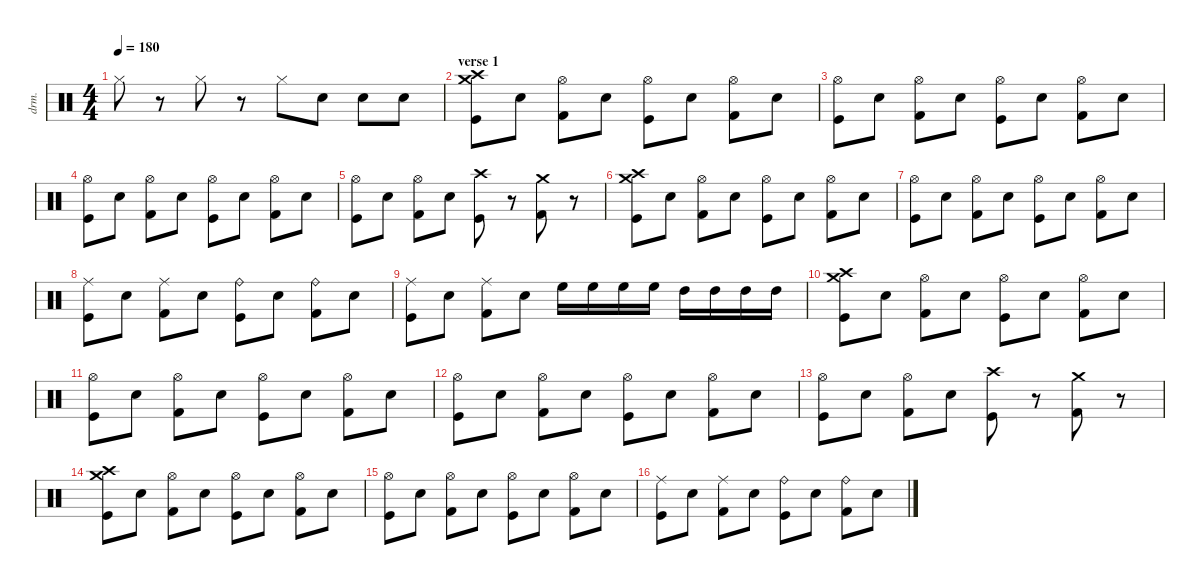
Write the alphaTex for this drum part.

\defaultSystemsLayout 4
\hideDynamics
\bracketExtendMode nobrackets
\otherSystemsTrackNameOrientation horizontal
\track ("Joosep" "drm.") {instrument percussion}
\staff {score}
\articulation defaults
\ts (4 4)
\tempo 180
\clef neutral
\ks c "Hi-Hat (closed)".8{dy mf beam Down}
r.8{beam Down} "Hi-Hat (closed)".8{beam Down} r.8{beam Down} "Hi-Hat (closed)".8{beam Down} "Snare (hit) 2".8{beam Down} "Snare (hit) 2".8{beam Down} "Snare (hit) 2".8{beam Down} |
\section ("" "verse 1")
("Kick (hit)" "Crash high (hit)" "Crash medium (hit)").8{beam Down} "Snare (hit) 2".8{beam Down} ("Hi-Hat (open)" "Kick (hit) 2").8{beam Down} "Snare (hit) 2".8{beam Down} ("Kick (hit)" "Hi-Hat (open)").8{beam Down} "Snare (hit) 2".8{beam Down} ("Hi-Hat (open)" "Kick (hit) 2").8{beam Down} "Snare (hit) 2".8{beam Down} |
("Kick (hit)" "Hi-Hat (open)").8{beam Down} "Snare (hit) 2".8{beam Down} ("Hi-Hat (open)" "Kick (hit) 2").8{beam Down} "Snare (hit) 2".8{beam Down} ("Kick (hit)" "Hi-Hat (open)").8{beam Down} "Snare (hit) 2".8{beam Down} ("Hi-Hat (open)" "Kick (hit) 2").8{beam Down} "Snare (hit) 2".8{beam Down} |
("Kick (hit)" "Hi-Hat (open)").8{beam Down} "Snare (hit) 2".8{beam Down} ("Hi-Hat (open)" "Kick (hit) 2").8{beam Down} "Snare (hit) 2".8{beam Down} ("Kick (hit)" "Hi-Hat (open)").8{beam Down} "Snare (hit) 2".8{beam Down} ("Hi-Hat (open)" "Kick (hit) 2").8{beam Down} "Snare (hit) 2".8{beam Down} |
("Kick (hit)" "Hi-Hat (open)").8{beam Down} "Snare (hit) 2".8{beam Down} ("Hi-Hat (open)" "Kick (hit) 2").8{beam Down} "Snare (hit) 2".8{beam Down} ("Kick (hit)" "Crash high (hit)").8{beam Down} r.8{beam Down} ("Kick (hit) 2" "Crash medium (hit)").8{beam Down} r.8{beam Down} |
("Kick (hit)" "Crash high (hit)" "Crash medium (hit)").8{beam Down} "Snare (hit) 2".8{beam Down} ("Hi-Hat (open)" "Kick (hit) 2").8{beam Down} "Snare (hit) 2".8{beam Down} ("Kick (hit)" "Hi-Hat (open)").8{beam Down} "Snare (hit) 2".8{beam Down} ("Hi-Hat (open)" "Kick (hit) 2").8{beam Down} "Snare (hit) 2".8{beam Down} |
("Kick (hit)" "Hi-Hat (open)").8{beam Down} "Snare (hit) 2".8{beam Down} ("Hi-Hat (open)" "Kick (hit) 2").8{beam Down} "Snare (hit) 2".8{beam Down} ("Kick (hit)" "Hi-Hat (open)").8{beam Down} "Snare (hit) 2".8{beam Down} ("Hi-Hat (open)" "Kick (hit) 2").8{beam Down} "Snare (hit) 2".8{beam Down} |
("Kick (hit)" "Ride (middle)").8{beam Down} "Snare (hit) 2".8{beam Down} ("Kick (hit) 2" "Ride (middle)").8{beam Down} "Snare (hit) 2".8{beam Down} ("Kick (hit)" "Ride (bell)").8{beam Down} "Snare (hit) 2".8{beam Down} ("Kick (hit) 2" "Ride (bell)").8{beam Down} "Snare (hit) 2".8{beam Down} |
("Kick (hit)" "Ride (middle)").8{beam Down} "Snare (hit) 2".8{beam Down} ("Kick (hit) 2" "Ride (middle)").8{beam Down} "Snare (hit) 2".8{beam Down} "High Floor Tom (hit)".16{beam Down} "High Floor Tom (hit)".16{beam Down} "High Floor Tom (hit)".16{beam Down} "High Floor Tom (hit)".16{beam Down} "High Tom (hit)".16{beam Down} "High Tom (hit)".16{beam Down} "High Tom (hit)".16{beam Down} "High Tom (hit)".16{beam Down} |
("Kick (hit)" "Crash high (hit)" "Crash medium (hit)").8{beam Down} "Snare (hit) 2".8{beam Down} ("Hi-Hat (open)" "Kick (hit) 2").8{beam Down} "Snare (hit) 2".8{beam Down} ("Kick (hit)" "Hi-Hat (open)").8{beam Down} "Snare (hit) 2".8{beam Down} ("Hi-Hat (open)" "Kick (hit) 2").8{beam Down} "Snare (hit) 2".8{beam Down} |
("Kick (hit)" "Hi-Hat (open)").8{beam Down} "Snare (hit) 2".8{beam Down} ("Hi-Hat (open)" "Kick (hit) 2").8{beam Down} "Snare (hit) 2".8{beam Down} ("Kick (hit)" "Hi-Hat (open)").8{beam Down} "Snare (hit) 2".8{beam Down} ("Hi-Hat (open)" "Kick (hit) 2").8{beam Down} "Snare (hit) 2".8{beam Down} |
("Kick (hit)" "Hi-Hat (open)").8{beam Down} "Snare (hit) 2".8{beam Down} ("Hi-Hat (open)" "Kick (hit) 2").8{beam Down} "Snare (hit) 2".8{beam Down} ("Kick (hit)" "Hi-Hat (open)").8{beam Down} "Snare (hit) 2".8{beam Down} ("Hi-Hat (open)" "Kick (hit) 2").8{beam Down} "Snare (hit) 2".8{beam Down} |
("Kick (hit)" "Hi-Hat (open)").8{beam Down} "Snare (hit) 2".8{beam Down} ("Hi-Hat (open)" "Kick (hit) 2").8{beam Down} "Snare (hit) 2".8{beam Down} ("Kick (hit)" "Crash high (hit)").8{beam Down} r.8{beam Down} ("Kick (hit) 2" "Crash medium (hit)").8{beam Down} r.8{beam Down} |
("Kick (hit)" "Crash high (hit)" "Crash medium (hit)").8{beam Down} "Snare (hit) 2".8{beam Down} ("Hi-Hat (open)" "Kick (hit) 2").8{beam Down} "Snare (hit) 2".8{beam Down} ("Kick (hit)" "Hi-Hat (open)").8{beam Down} "Snare (hit) 2".8{beam Down} ("Hi-Hat (open)" "Kick (hit) 2").8{beam Down} "Snare (hit) 2".8{beam Down} |
("Kick (hit)" "Hi-Hat (open)").8{beam Down} "Snare (hit) 2".8{beam Down} ("Hi-Hat (open)" "Kick (hit) 2").8{beam Down} "Snare (hit) 2".8{beam Down} ("Kick (hit)" "Hi-Hat (open)").8{beam Down} "Snare (hit) 2".8{beam Down} ("Hi-Hat (open)" "Kick (hit) 2").8{beam Down} "Snare (hit) 2".8{beam Down} |
("Kick (hit)" "Ride (middle)").8{beam Down} "Snare (hit) 2".8{beam Down} ("Kick (hit) 2" "Ride (middle)").8{beam Down} "Snare (hit) 2".8{beam Down} ("Kick (hit)" "Ride (bell)").8{beam Down} "Snare (hit) 2".8{beam Down} ("Kick (hit) 2" "Ride (bell)").8{beam Down} "Snare (hit) 2".8{beam Down}
